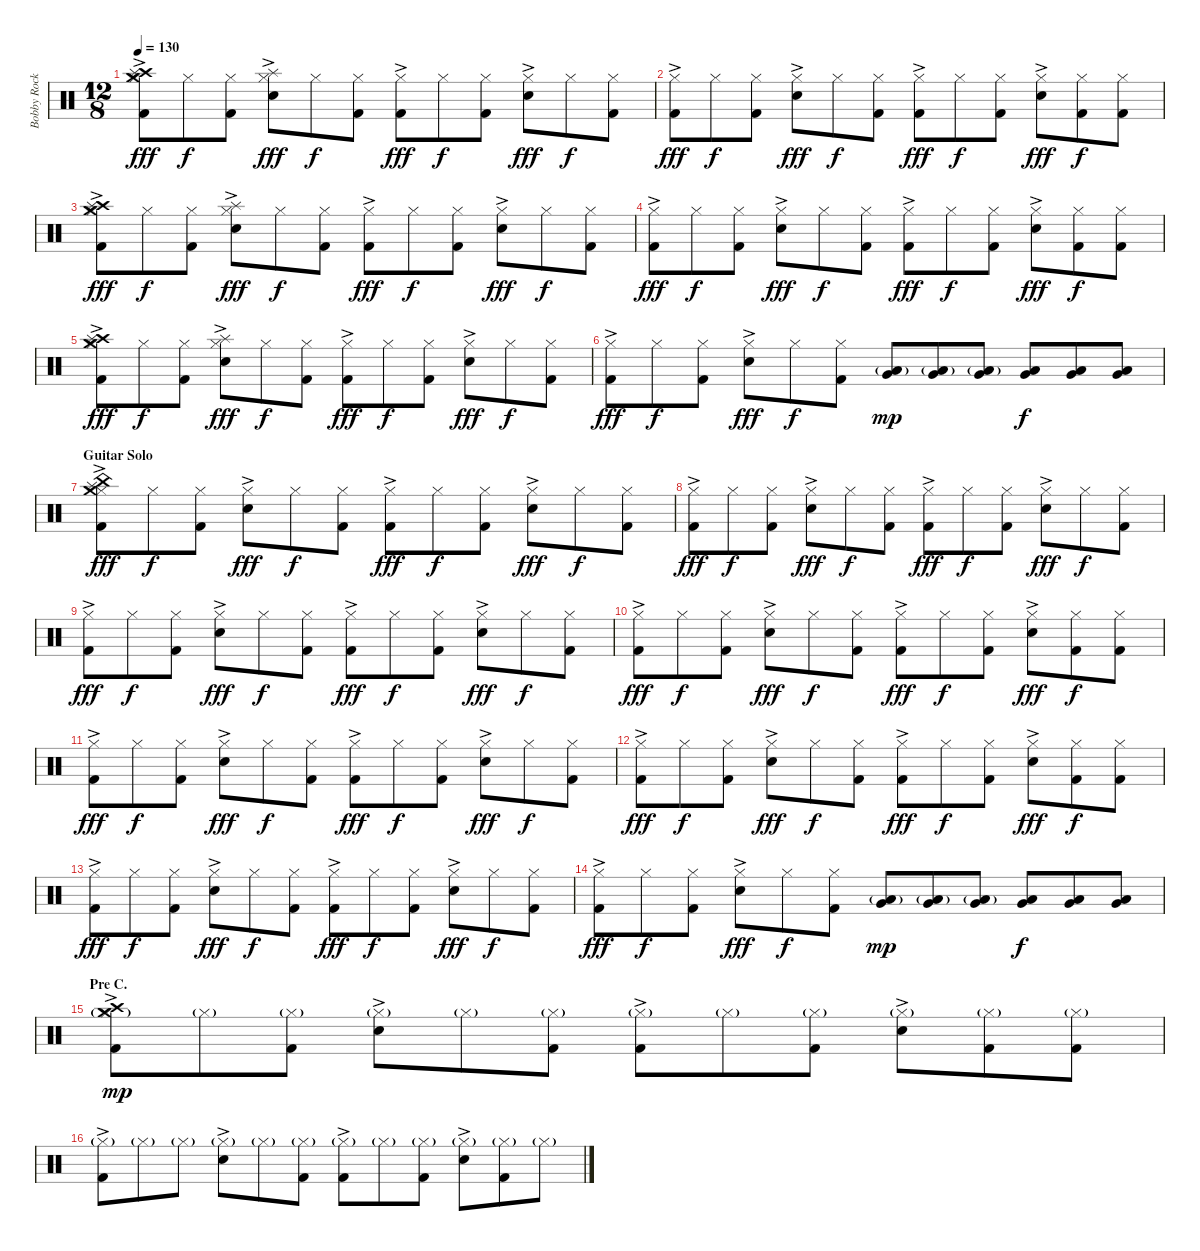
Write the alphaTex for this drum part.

\track ("Bobby Rock - drums" "Bobby Rock") {instrument percussion}
\staff {score}
\articulation defaults
\ts (12 8)
\tempo 130
\clef neutral
\ks c
("Hi-Hat (closed)"{ac} "Crash high (hit)" "Crash medium (hit)" "Splash (hit)" "Kick (hit) 2").8{dy fff} "Hi-Hat (closed)".8{dy f} ("Hi-Hat (closed)" "Kick (hit) 2").8 ("Hi-Hat (closed)"{ac} "Splash (hit)" "Snare (hit) 2").8{dy fff} "Hi-Hat (closed)".8{dy f} ("Hi-Hat (closed)" "Kick (hit) 2").8 ("Hi-Hat (closed)"{ac} "Kick (hit) 2").8{dy fff} "Hi-Hat (closed)".8{dy f} ("Hi-Hat (closed)" "Kick (hit) 2").8 ("Hi-Hat (closed)"{ac} "Snare (hit) 2").8{dy fff} "Hi-Hat (closed)".8{dy f} ("Hi-Hat (closed)" "Kick (hit) 2").8 |
("Hi-Hat (closed)"{ac} "Kick (hit) 2").8{dy fff} "Hi-Hat (closed)".8{dy f} ("Hi-Hat (closed)" "Kick (hit) 2").8 ("Hi-Hat (closed)"{ac} "Snare (hit) 2").8{dy fff} "Hi-Hat (closed)".8{dy f} ("Hi-Hat (closed)" "Kick (hit) 2").8 ("Hi-Hat (closed)"{ac} "Kick (hit) 2").8{dy fff} "Hi-Hat (closed)".8{dy f} ("Hi-Hat (closed)" "Kick (hit) 2").8 ("Hi-Hat (closed)"{ac} "Snare (hit) 2").8{dy fff} ("Hi-Hat (closed)" "Kick (hit) 2").8{dy f} ("Hi-Hat (closed)" "Kick (hit) 2").8 |
("Hi-Hat (closed)"{ac} "Crash high (hit)" "Crash medium (hit)" "Splash (hit)" "Kick (hit) 2").8{dy fff} "Hi-Hat (closed)".8{dy f} ("Hi-Hat (closed)" "Kick (hit) 2").8 ("Hi-Hat (closed)"{ac} "Splash (hit)" "Snare (hit) 2").8{dy fff} "Hi-Hat (closed)".8{dy f} ("Hi-Hat (closed)" "Kick (hit) 2").8 ("Hi-Hat (closed)"{ac} "Kick (hit) 2").8{dy fff} "Hi-Hat (closed)".8{dy f} ("Hi-Hat (closed)" "Kick (hit) 2").8 ("Hi-Hat (closed)"{ac} "Snare (hit) 2").8{dy fff} "Hi-Hat (closed)".8{dy f} ("Hi-Hat (closed)" "Kick (hit) 2").8 |
("Hi-Hat (closed)"{ac} "Kick (hit) 2").8{dy fff} "Hi-Hat (closed)".8{dy f} ("Hi-Hat (closed)" "Kick (hit) 2").8 ("Hi-Hat (closed)"{ac} "Snare (hit) 2").8{dy fff} "Hi-Hat (closed)".8{dy f} ("Hi-Hat (closed)" "Kick (hit) 2").8 ("Hi-Hat (closed)"{ac} "Kick (hit) 2").8{dy fff} "Hi-Hat (closed)".8{dy f} ("Hi-Hat (closed)" "Kick (hit) 2").8 ("Hi-Hat (closed)"{ac} "Snare (hit) 2").8{dy fff} ("Hi-Hat (closed)" "Kick (hit) 2").8{dy f} ("Hi-Hat (closed)" "Kick (hit) 2").8 |
("Hi-Hat (closed)"{ac} "Crash high (hit)" "Crash medium (hit)" "Splash (hit)" "Kick (hit) 2").8{dy fff} "Hi-Hat (closed)".8{dy f} ("Hi-Hat (closed)" "Kick (hit) 2").8 ("Hi-Hat (closed)"{ac} "Splash (hit)" "Snare (hit) 2").8{dy fff} "Hi-Hat (closed)".8{dy f} ("Hi-Hat (closed)" "Kick (hit) 2").8 ("Hi-Hat (closed)"{ac} "Kick (hit) 2").8{dy fff} "Hi-Hat (closed)".8{dy f} ("Hi-Hat (closed)" "Kick (hit) 2").8 ("Hi-Hat (closed)"{ac} "Snare (hit) 2").8{dy fff} "Hi-Hat (closed)".8{dy f} ("Hi-Hat (closed)" "Kick (hit) 2").8 |
("Hi-Hat (closed)"{ac} "Kick (hit) 2").8{dy fff} "Hi-Hat (closed)".8{dy f} ("Hi-Hat (closed)" "Kick (hit) 2").8 ("Hi-Hat (closed)"{ac} "Snare (hit) 2").8{dy fff} "Hi-Hat (closed)".8{dy f} ("Hi-Hat (closed)" "Kick (hit) 2").8 ("Very Low Tom (hit)" "Low Floor Tom (hit)"{g}).8{dy mp} ("Very Low Tom (hit)" "Low Floor Tom (hit)"{g}).8 ("Very Low Tom (hit)" "Low Floor Tom (hit)"{g}).8 ("Very Low Tom (hit)" "Low Floor Tom (hit)").8{dy f} ("Very Low Tom (hit)" "Low Floor Tom (hit)").8 ("Very Low Tom (hit)" "Low Floor Tom (hit)").8 |
\section ("" "Guitar Solo")
("Hi-Hat (closed)"{ac} "China (hit)" "Splash (hit)" "Crash medium (hit)" "Kick (hit) 2").8{dy fff} "Hi-Hat (closed)".8{dy f} ("Hi-Hat (closed)" "Kick (hit) 2").8 ("Hi-Hat (closed)"{ac} "Snare (hit) 2").8{dy fff} "Hi-Hat (closed)".8{dy f} ("Hi-Hat (closed)" "Kick (hit) 2").8 ("Hi-Hat (closed)"{ac} "Kick (hit) 2").8{dy fff} "Hi-Hat (closed)".8{dy f} ("Hi-Hat (closed)" "Kick (hit) 2").8 ("Hi-Hat (closed)"{ac} "Snare (hit) 2").8{dy fff} "Hi-Hat (closed)".8{dy f} ("Hi-Hat (closed)" "Kick (hit) 2").8 |
("Hi-Hat (closed)"{ac} "Kick (hit) 2").8{dy fff} "Hi-Hat (closed)".8{dy f} ("Hi-Hat (closed)" "Kick (hit) 2").8 ("Hi-Hat (closed)"{ac} "Snare (hit) 2").8{dy fff} "Hi-Hat (closed)".8{dy f} ("Hi-Hat (closed)" "Kick (hit) 2").8 ("Hi-Hat (closed)"{ac} "Kick (hit) 2").8{dy fff} "Hi-Hat (closed)".8{dy f} ("Hi-Hat (closed)" "Kick (hit) 2").8 ("Hi-Hat (closed)"{ac} "Snare (hit) 2").8{dy fff} "Hi-Hat (closed)".8{dy f} ("Hi-Hat (closed)" "Kick (hit) 2").8 |
("Hi-Hat (closed)"{ac} "Kick (hit) 2").8{dy fff} "Hi-Hat (closed)".8{dy f} ("Hi-Hat (closed)" "Kick (hit) 2").8 ("Hi-Hat (closed)"{ac} "Snare (hit) 2").8{dy fff} "Hi-Hat (closed)".8{dy f} ("Hi-Hat (closed)" "Kick (hit) 2").8 ("Hi-Hat (closed)"{ac} "Kick (hit) 2").8{dy fff} "Hi-Hat (closed)".8{dy f} ("Hi-Hat (closed)" "Kick (hit) 2").8 ("Hi-Hat (closed)"{ac} "Snare (hit) 2").8{dy fff} "Hi-Hat (closed)".8{dy f} ("Hi-Hat (closed)" "Kick (hit) 2").8 |
("Hi-Hat (closed)"{ac} "Kick (hit) 2").8{dy fff} "Hi-Hat (closed)".8{dy f} ("Hi-Hat (closed)" "Kick (hit) 2").8 ("Hi-Hat (closed)"{ac} "Snare (hit) 2").8{dy fff} "Hi-Hat (closed)".8{dy f} ("Hi-Hat (closed)" "Kick (hit) 2").8 ("Hi-Hat (closed)"{ac} "Kick (hit) 2").8{dy fff} "Hi-Hat (closed)".8{dy f} ("Hi-Hat (closed)" "Kick (hit) 2").8 ("Hi-Hat (closed)"{ac} "Snare (hit) 2").8{dy fff} ("Hi-Hat (closed)" "Kick (hit) 2").8{dy f} ("Hi-Hat (closed)" "Kick (hit) 2").8 |
("Hi-Hat (closed)"{ac} "Kick (hit) 2").8{dy fff} "Hi-Hat (closed)".8{dy f} ("Hi-Hat (closed)" "Kick (hit) 2").8 ("Hi-Hat (closed)"{ac} "Snare (hit) 2").8{dy fff} "Hi-Hat (closed)".8{dy f} ("Hi-Hat (closed)" "Kick (hit) 2").8 ("Hi-Hat (closed)"{ac} "Kick (hit) 2").8{dy fff} "Hi-Hat (closed)".8{dy f} ("Hi-Hat (closed)" "Kick (hit) 2").8 ("Hi-Hat (closed)"{ac} "Snare (hit) 2").8{dy fff} "Hi-Hat (closed)".8{dy f} ("Hi-Hat (closed)" "Kick (hit) 2").8 |
("Hi-Hat (closed)"{ac} "Kick (hit) 2").8{dy fff} "Hi-Hat (closed)".8{dy f} ("Hi-Hat (closed)" "Kick (hit) 2").8 ("Hi-Hat (closed)"{ac} "Snare (hit) 2").8{dy fff} "Hi-Hat (closed)".8{dy f} ("Hi-Hat (closed)" "Kick (hit) 2").8 ("Hi-Hat (closed)"{ac} "Kick (hit) 2").8{dy fff} "Hi-Hat (closed)".8{dy f} ("Hi-Hat (closed)" "Kick (hit) 2").8 ("Hi-Hat (closed)"{ac} "Snare (hit) 2").8{dy fff} ("Hi-Hat (closed)" "Kick (hit) 2").8{dy f} ("Hi-Hat (closed)" "Kick (hit) 2").8 |
("Hi-Hat (closed)"{ac} "Kick (hit) 2").8{dy fff} "Hi-Hat (closed)".8{dy f} ("Hi-Hat (closed)" "Kick (hit) 2").8 ("Hi-Hat (closed)"{ac} "Snare (hit) 2").8{dy fff} "Hi-Hat (closed)".8{dy f} ("Hi-Hat (closed)" "Kick (hit) 2").8 ("Hi-Hat (closed)"{ac} "Kick (hit) 2").8{dy fff} "Hi-Hat (closed)".8{dy f} ("Hi-Hat (closed)" "Kick (hit) 2").8 ("Hi-Hat (closed)"{ac} "Snare (hit) 2").8{dy fff} "Hi-Hat (closed)".8{dy f} ("Hi-Hat (closed)" "Kick (hit) 2").8 |
("Hi-Hat (closed)"{ac} "Kick (hit) 2").8{dy fff} "Hi-Hat (closed)".8{dy f} ("Hi-Hat (closed)" "Kick (hit) 2").8 ("Hi-Hat (closed)"{ac} "Snare (hit) 2").8{dy fff} "Hi-Hat (closed)".8{dy f} ("Hi-Hat (closed)" "Kick (hit) 2").8 ("Very Low Tom (hit)" "Low Floor Tom (hit)"{g}).8{dy mp} ("Very Low Tom (hit)" "Low Floor Tom (hit)"{g}).8 ("Very Low Tom (hit)" "Low Floor Tom (hit)"{g}).8 ("Very Low Tom (hit)" "Low Floor Tom (hit)").8{dy f} ("Very Low Tom (hit)" "Low Floor Tom (hit)").8 ("Very Low Tom (hit)" "Low Floor Tom (hit)").8 |
\section ("" "Pre C.")
("Hi-Hat (closed)"{g ac} "Crash high (hit)" "Crash medium (hit)" "Kick (hit) 2").8{dy mp} "Hi-Hat (closed)"{g}.8 ("Hi-Hat (closed)"{g} "Kick (hit) 2").8 ("Hi-Hat (closed)"{g ac} "Snare (hit) 2").8 "Hi-Hat (closed)"{g}.8 ("Hi-Hat (closed)"{g} "Kick (hit) 2").8 ("Hi-Hat (closed)"{g ac} "Kick (hit) 2").8 "Hi-Hat (closed)"{g}.8 ("Hi-Hat (closed)"{g} "Kick (hit) 2").8 ("Hi-Hat (closed)"{g ac} "Snare (hit) 2").8 ("Hi-Hat (closed)"{g} "Kick (hit) 2").8 ("Hi-Hat (closed)"{g} "Kick (hit) 2").8 |
("Hi-Hat (closed)"{g ac} "Kick (hit) 2").8 "Hi-Hat (closed)"{g}.8 "Hi-Hat (closed)"{g}.8 ("Hi-Hat (closed)"{g ac} "Snare (hit) 2").8 "Hi-Hat (closed)"{g}.8 ("Hi-Hat (closed)"{g} "Kick (hit) 2").8 ("Hi-Hat (closed)"{g ac} "Kick (hit) 2").8 "Hi-Hat (closed)"{g}.8 ("Hi-Hat (closed)"{g} "Kick (hit) 2").8 ("Hi-Hat (closed)"{g ac} "Snare (hit) 2").8 ("Hi-Hat (closed)"{g} "Kick (hit) 2").8 "Hi-Hat (closed)"{g}.8
